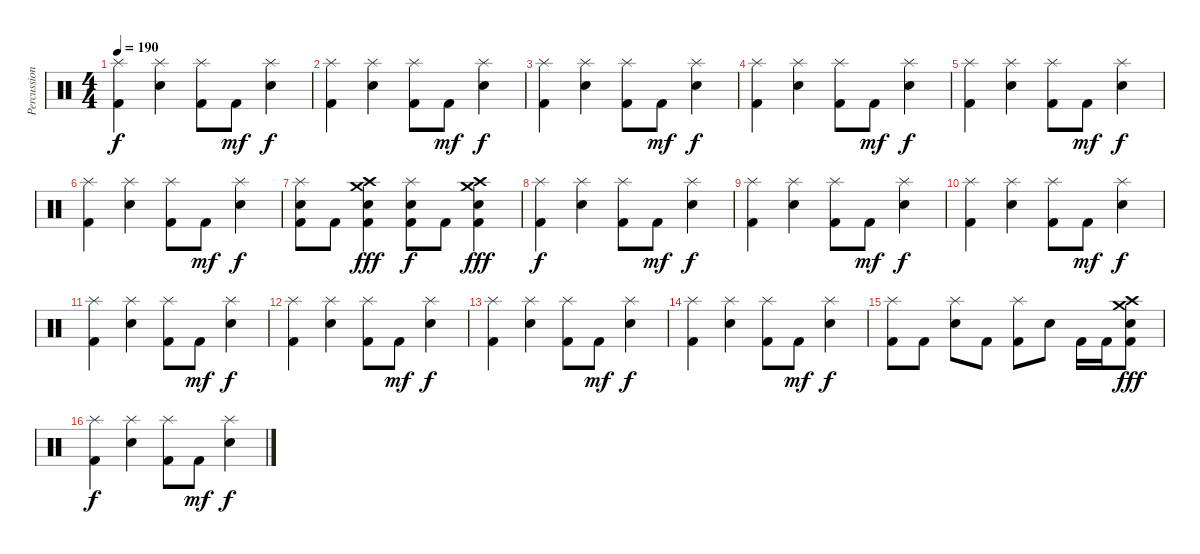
\track ("Percussion" "Percussion") {instrument percussion}
\staff {score}
\articulation defaults
\ts (4 4)
\tempo 190
\clef neutral
\ks c
("Splash (hit)" "Kick (hit) 2").4{dy f} ("Splash (hit)" "Electric Snare (hit)").4 ("Splash (hit)" "Kick (hit) 2").8 "Kick (hit) 2".8{dy mf} ("Splash (hit)" "Electric Snare (hit)").4{dy f} |
("Splash (hit)" "Kick (hit) 2").4 ("Splash (hit)" "Electric Snare (hit)").4 ("Splash (hit)" "Kick (hit) 2").8 "Kick (hit) 2".8{dy mf} ("Splash (hit)" "Electric Snare (hit)").4{dy f} |
("Splash (hit)" "Kick (hit) 2").4 ("Splash (hit)" "Electric Snare (hit)").4 ("Splash (hit)" "Kick (hit) 2").8 "Kick (hit) 2".8{dy mf} ("Splash (hit)" "Electric Snare (hit)").4{dy f} |
("Splash (hit)" "Kick (hit) 2").4 ("Splash (hit)" "Electric Snare (hit)").4 ("Splash (hit)" "Kick (hit) 2").8 "Kick (hit) 2".8{dy mf} ("Splash (hit)" "Electric Snare (hit)").4{dy f} |
("Splash (hit)" "Kick (hit) 2").4 ("Splash (hit)" "Electric Snare (hit)").4 ("Splash (hit)" "Kick (hit) 2").8 "Kick (hit) 2".8{dy mf} ("Splash (hit)" "Electric Snare (hit)").4{dy f} |
("Splash (hit)" "Kick (hit) 2").4 ("Splash (hit)" "Electric Snare (hit)").4 ("Splash (hit)" "Kick (hit) 2").8 "Kick (hit) 2".8{dy mf} ("Splash (hit)" "Electric Snare (hit)").4{dy f} |
("Splash (hit)" "Electric Snare (hit)" "Kick (hit) 2").8 "Kick (hit) 2".8 ("Crash high (hit)" "Crash medium (hit)" "Electric Snare (hit)" "Kick (hit) 2").4{dy fff} ("Splash (hit)" "Electric Snare (hit)" "Kick (hit) 2").8{dy f} "Kick (hit) 2".8 ("Crash medium (hit)" "Crash high (hit)" "Electric Snare (hit)" "Kick (hit) 2").4{dy fff} |
("Splash (hit)" "Kick (hit) 2").4{dy f} ("Splash (hit)" "Electric Snare (hit)").4 ("Splash (hit)" "Kick (hit) 2").8 "Kick (hit) 2".8{dy mf} ("Splash (hit)" "Electric Snare (hit)").4{dy f} |
("Splash (hit)" "Kick (hit) 2").4 ("Splash (hit)" "Electric Snare (hit)").4 ("Splash (hit)" "Kick (hit) 2").8 "Kick (hit) 2".8{dy mf} ("Splash (hit)" "Electric Snare (hit)").4{dy f} |
("Splash (hit)" "Kick (hit) 2").4 ("Splash (hit)" "Electric Snare (hit)").4 ("Splash (hit)" "Kick (hit) 2").8 "Kick (hit) 2".8{dy mf} ("Splash (hit)" "Electric Snare (hit)").4{dy f} |
("Splash (hit)" "Kick (hit) 2").4 ("Splash (hit)" "Electric Snare (hit)").4 ("Splash (hit)" "Kick (hit) 2").8 "Kick (hit) 2".8{dy mf} ("Splash (hit)" "Electric Snare (hit)").4{dy f} |
("Splash (hit)" "Kick (hit) 2").4 ("Splash (hit)" "Electric Snare (hit)").4 ("Splash (hit)" "Kick (hit) 2").8 "Kick (hit) 2".8{dy mf} ("Splash (hit)" "Electric Snare (hit)").4{dy f} |
("Splash (hit)" "Kick (hit) 2").4 ("Splash (hit)" "Electric Snare (hit)").4 ("Splash (hit)" "Kick (hit) 2").8 "Kick (hit) 2".8{dy mf} ("Splash (hit)" "Electric Snare (hit)").4{dy f} |
("Splash (hit)" "Kick (hit) 2").4 ("Splash (hit)" "Electric Snare (hit)").4 ("Splash (hit)" "Kick (hit) 2").8 "Kick (hit) 2".8{dy mf} ("Splash (hit)" "Electric Snare (hit)").4{dy f} |
("Splash (hit)" "Kick (hit) 2").8 "Kick (hit) 2".8 ("Splash (hit)" "Electric Snare (hit)").8 "Kick (hit) 2".8 ("Splash (hit)" "Kick (hit) 2").8 "Electric Snare (hit)".8 "Kick (hit) 2".16 "Kick (hit) 2".16 ("Crash high (hit)" "Crash medium (hit)" "Electric Snare (hit)" "Kick (hit) 2").8{dy fff} |
("Splash (hit)" "Kick (hit) 2").4{dy f} ("Splash (hit)" "Electric Snare (hit)").4 ("Splash (hit)" "Kick (hit) 2").8 "Kick (hit) 2".8{dy mf} ("Splash (hit)" "Electric Snare (hit)").4{dy f}
